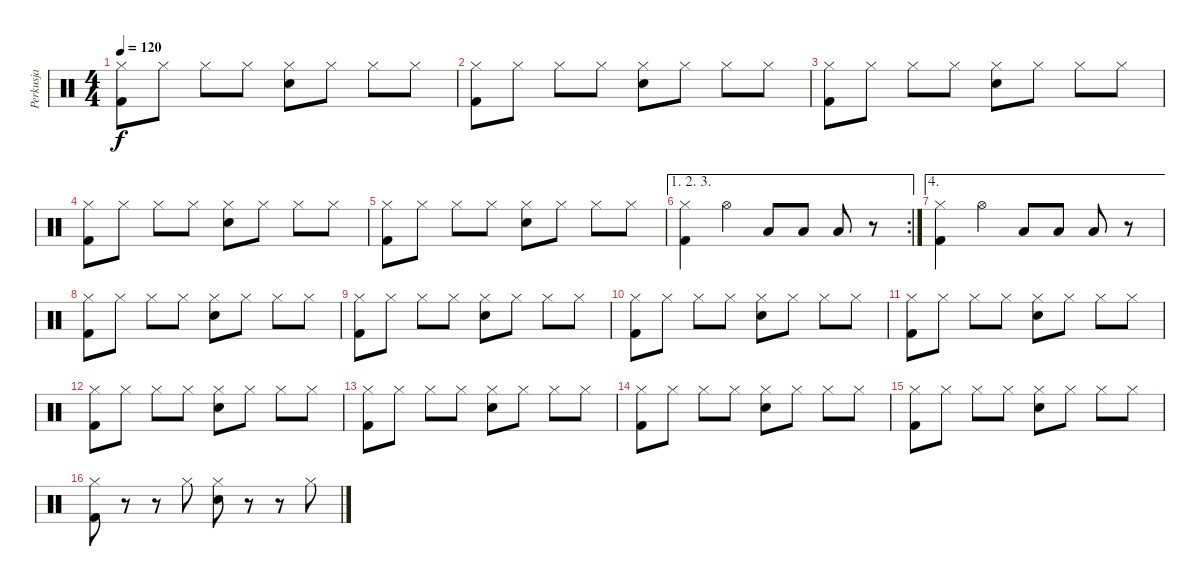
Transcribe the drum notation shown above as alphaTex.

\track ("Perkusja" "Perkusja") {instrument percussion}
\staff {score}
\articulation defaults
\ts (4 4)
\tempo 120
\clef neutral
\ks c
("Hi-Hat (closed)" "Kick (hit) 2").8{dy f} "Hi-Hat (closed)".8 "Hi-Hat (closed)".8 "Hi-Hat (closed)".8 ("Hi-Hat (closed)" "Electric Snare (hit)").8 "Hi-Hat (closed)".8 "Hi-Hat (closed)".8 "Hi-Hat (closed)".8 |
("Hi-Hat (closed)" "Kick (hit) 2").8 "Hi-Hat (closed)".8 "Hi-Hat (closed)".8 "Hi-Hat (closed)".8 ("Hi-Hat (closed)" "Electric Snare (hit)").8 "Hi-Hat (closed)".8 "Hi-Hat (closed)".8 "Hi-Hat (closed)".8 |
("Hi-Hat (closed)" "Kick (hit) 2").8 "Hi-Hat (closed)".8 "Hi-Hat (closed)".8 "Hi-Hat (closed)".8 ("Hi-Hat (closed)" "Electric Snare (hit)").8 "Hi-Hat (closed)".8 "Hi-Hat (closed)".8 "Hi-Hat (closed)".8 |
("Hi-Hat (closed)" "Kick (hit) 2").8 "Hi-Hat (closed)".8 "Hi-Hat (closed)".8 "Hi-Hat (closed)".8 ("Hi-Hat (closed)" "Electric Snare (hit)").8 "Hi-Hat (closed)".8 "Hi-Hat (closed)".8 "Hi-Hat (closed)".8 |
("Hi-Hat (closed)" "Kick (hit) 2").8 "Hi-Hat (closed)".8 "Hi-Hat (closed)".8 "Hi-Hat (closed)".8 ("Hi-Hat (closed)" "Electric Snare (hit)").8 "Hi-Hat (closed)".8 "Hi-Hat (closed)".8 "Hi-Hat (closed)".8 |
\ae (1 2 3)
\rc 2
("Hi-Hat (closed)" "Kick (hit) 2").4 "Hi-Hat (open)".4 "Low Tom (hit)".8 "Low Tom (hit)".8 "Low Tom (hit)".8 r.8 |
\ae 4
("Hi-Hat (closed)" "Kick (hit) 2").4 "Hi-Hat (open)".4 "Low Tom (hit)".8 "Low Tom (hit)".8 "Low Tom (hit)".8 r.8 |
("Hi-Hat (closed)" "Kick (hit) 2").8 "Hi-Hat (closed)".8 "Hi-Hat (closed)".8 "Hi-Hat (closed)".8 ("Hi-Hat (closed)" "Electric Snare (hit)").8 "Hi-Hat (closed)".8 "Hi-Hat (closed)".8 "Hi-Hat (closed)".8 |
("Hi-Hat (closed)" "Kick (hit) 2").8 "Hi-Hat (closed)".8 "Hi-Hat (closed)".8 "Hi-Hat (closed)".8 ("Hi-Hat (closed)" "Electric Snare (hit)").8 "Hi-Hat (closed)".8 "Hi-Hat (closed)".8 "Hi-Hat (closed)".8 |
("Hi-Hat (closed)" "Kick (hit) 2").8 "Hi-Hat (closed)".8 "Hi-Hat (closed)".8 "Hi-Hat (closed)".8 ("Hi-Hat (closed)" "Electric Snare (hit)").8 "Hi-Hat (closed)".8 "Hi-Hat (closed)".8 "Hi-Hat (closed)".8 |
("Hi-Hat (closed)" "Kick (hit) 2").8 "Hi-Hat (closed)".8 "Hi-Hat (closed)".8 "Hi-Hat (closed)".8 ("Hi-Hat (closed)" "Electric Snare (hit)").8 "Hi-Hat (closed)".8 "Hi-Hat (closed)".8 "Hi-Hat (closed)".8 |
("Hi-Hat (closed)" "Kick (hit) 2").8 "Hi-Hat (closed)".8 "Hi-Hat (closed)".8 "Hi-Hat (closed)".8 ("Hi-Hat (closed)" "Electric Snare (hit)").8 "Hi-Hat (closed)".8 "Hi-Hat (closed)".8 "Hi-Hat (closed)".8 |
("Hi-Hat (closed)" "Kick (hit) 2").8 "Hi-Hat (closed)".8 "Hi-Hat (closed)".8 "Hi-Hat (closed)".8 ("Hi-Hat (closed)" "Electric Snare (hit)").8 "Hi-Hat (closed)".8 "Hi-Hat (closed)".8 "Hi-Hat (closed)".8 |
("Hi-Hat (closed)" "Kick (hit) 2").8 "Hi-Hat (closed)".8 "Hi-Hat (closed)".8 "Hi-Hat (closed)".8 ("Hi-Hat (closed)" "Electric Snare (hit)").8 "Hi-Hat (closed)".8 "Hi-Hat (closed)".8 "Hi-Hat (closed)".8 |
("Hi-Hat (closed)" "Kick (hit) 2").8 "Hi-Hat (closed)".8 "Hi-Hat (closed)".8 "Hi-Hat (closed)".8 ("Hi-Hat (closed)" "Electric Snare (hit)").8 "Hi-Hat (closed)".8 "Hi-Hat (closed)".8 "Hi-Hat (closed)".8 |
("Hi-Hat (closed)" "Kick (hit) 2").8 r.8 r.8 "Hi-Hat (closed)".8 ("Hi-Hat (closed)" "Electric Snare (hit)").8 r.8 r.8 "Hi-Hat (closed)".8
